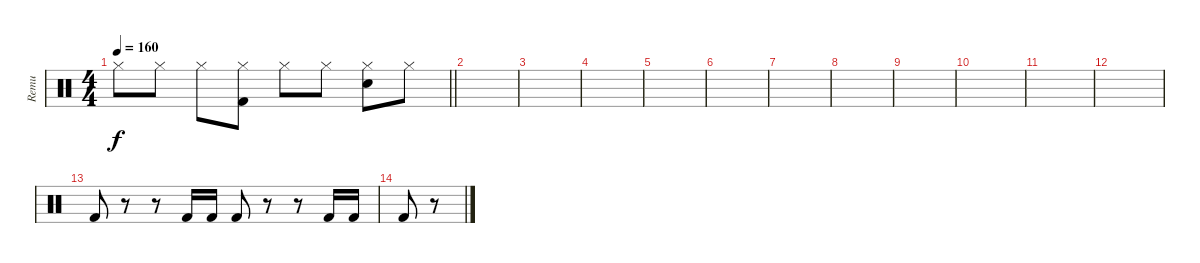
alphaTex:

\track ("Remu" "Remu") {instrument percussion}
\staff {score}
\articulation defaults
\ts (4 4)
\tempo 160
\clef neutral
\barLineRight lightlight
\ks c "Hi-Hat (closed)".8{dy f} "Hi-Hat (closed)".8 "Hi-Hat (closed)".8
("Hi-Hat (closed)" "Kick (hit) 2").8 "Hi-Hat (closed)".8 "Hi-Hat (closed)".8 ("Hi-Hat (closed)" "Electric Snare (hit)").8 "Hi-Hat (closed)".8 |
|
|
|
|
|
|
|
|
|
|
|
"Kick (hit) 2".8 r.8 r.8 "Kick (hit) 2".16 "Kick (hit) 2".16 "Kick (hit) 2".8 r.8 r.8 "Kick (hit) 2".16 "Kick (hit) 2".16 |
"Kick (hit) 2".8 r.8
